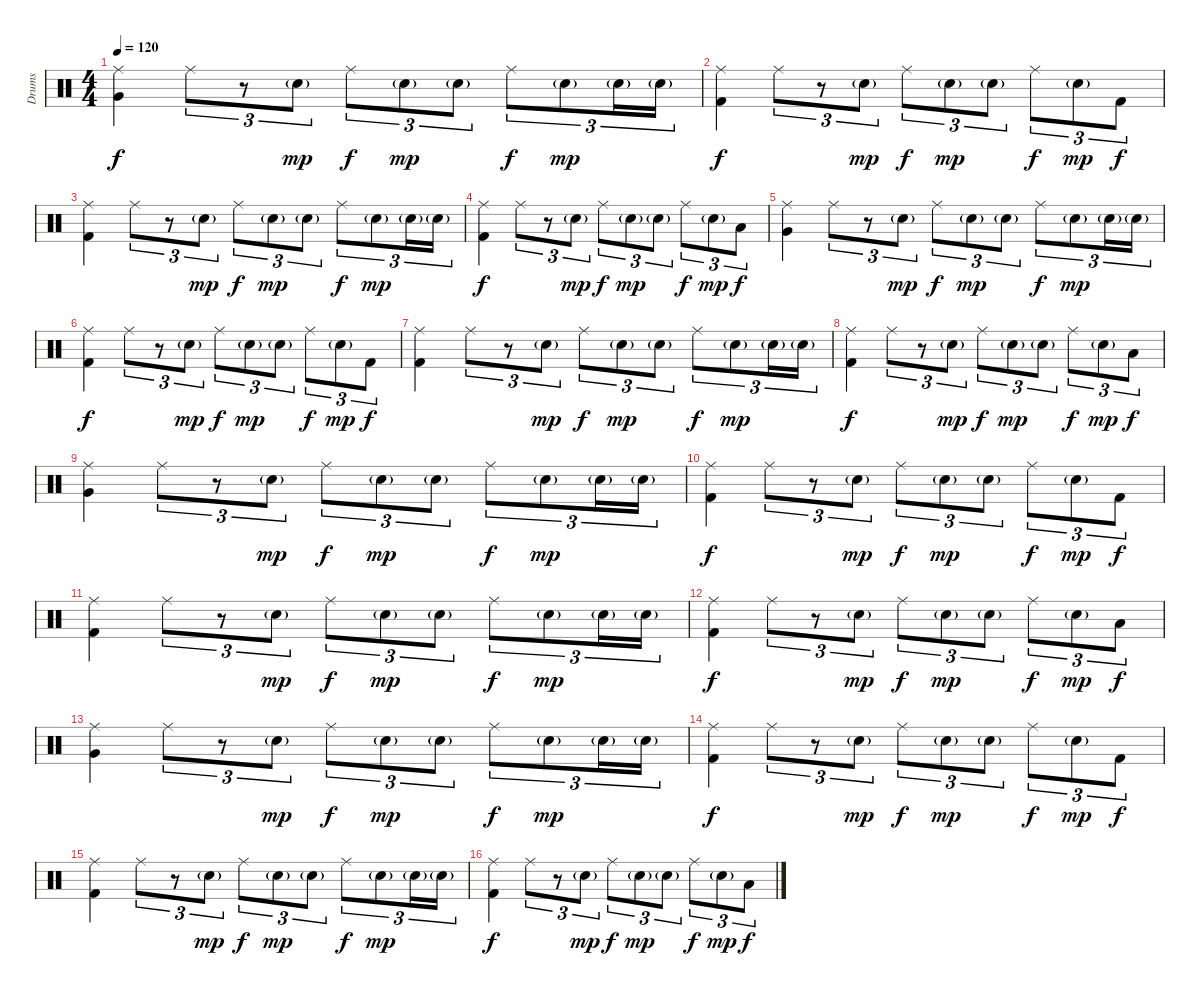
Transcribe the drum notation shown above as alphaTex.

\track ("Drums" "Drums") {instrument percussion}
\staff {score}
\articulation defaults
\ts (4 4)
\tempo 120
\clef neutral
\ks c
("Ride (middle)" "Very Low Tom (hit)").4{dy f} "Ride (middle)".8{tu (3 2)} r.8{tu (3 2)} "Snare (hit) 2"{g}.8{tu (3 2) dy mp} "Ride (middle)".8{tu (3 2) dy f} "Snare (hit) 2"{g}.8{tu (3 2) dy mp} "Snare (hit) 2"{g}.8{tu (3 2)} "Ride (middle)".8{tu (3 2) dy f} "Snare (hit) 2"{g}.8{tu (3 2) dy mp} "Snare (hit) 2"{g}.16{tu (3 2)} "Snare (hit) 2"{g}.16{tu (3 2)} |
("Ride (middle)" "Kick (hit) 2").4{dy f} "Ride (middle)".8{tu (3 2)} r.8{tu (3 2)} "Snare (hit) 2"{g}.8{tu (3 2) dy mp} "Ride (middle)".8{tu (3 2) dy f} "Snare (hit) 2"{g}.8{tu (3 2) dy mp} "Snare (hit) 2"{g}.8{tu (3 2)} "Ride (middle)".8{tu (3 2) dy f} "Snare (hit) 2"{g}.8{tu (3 2) dy mp} "Kick (hit) 2".8{tu (3 2) dy f} |
("Ride (middle)" "Kick (hit) 2").4 "Ride (middle)".8{tu (3 2)} r.8{tu (3 2)} "Snare (hit) 2"{g}.8{tu (3 2) dy mp} "Ride (middle)".8{tu (3 2) dy f} "Snare (hit) 2"{g}.8{tu (3 2) dy mp} "Snare (hit) 2"{g}.8{tu (3 2)} "Ride (middle)".8{tu (3 2) dy f} "Snare (hit) 2"{g}.8{tu (3 2) dy mp} "Snare (hit) 2"{g}.16{tu (3 2)} "Snare (hit) 2"{g}.16{tu (3 2)} |
("Ride (middle)" "Kick (hit) 2").4{dy f} "Ride (middle)".8{tu (3 2)} r.8{tu (3 2)} "Snare (hit) 2"{g}.8{tu (3 2) dy mp} "Ride (middle)".8{tu (3 2) dy f} "Snare (hit) 2"{g}.8{tu (3 2) dy mp} "Snare (hit) 2"{g}.8{tu (3 2)} "Ride (middle)".8{tu (3 2) dy f} "Snare (hit) 2"{g}.8{tu (3 2) dy mp} "Low Tom (hit)".8{tu (3 2) dy f} |
("Ride (middle)" "Very Low Tom (hit)").4 "Ride (middle)".8{tu (3 2)} r.8{tu (3 2)} "Snare (hit) 2"{g}.8{tu (3 2) dy mp} "Ride (middle)".8{tu (3 2) dy f} "Snare (hit) 2"{g}.8{tu (3 2) dy mp} "Snare (hit) 2"{g}.8{tu (3 2)} "Ride (middle)".8{tu (3 2) dy f} "Snare (hit) 2"{g}.8{tu (3 2) dy mp} "Snare (hit) 2"{g}.16{tu (3 2)} "Snare (hit) 2"{g}.16{tu (3 2)} |
("Ride (middle)" "Kick (hit) 2").4{dy f} "Ride (middle)".8{tu (3 2)} r.8{tu (3 2)} "Snare (hit) 2"{g}.8{tu (3 2) dy mp} "Ride (middle)".8{tu (3 2) dy f} "Snare (hit) 2"{g}.8{tu (3 2) dy mp} "Snare (hit) 2"{g}.8{tu (3 2)} "Ride (middle)".8{tu (3 2) dy f} "Snare (hit) 2"{g}.8{tu (3 2) dy mp} "Kick (hit) 2".8{tu (3 2) dy f} |
("Ride (middle)" "Kick (hit) 2").4 "Ride (middle)".8{tu (3 2)} r.8{tu (3 2)} "Snare (hit) 2"{g}.8{tu (3 2) dy mp} "Ride (middle)".8{tu (3 2) dy f} "Snare (hit) 2"{g}.8{tu (3 2) dy mp} "Snare (hit) 2"{g}.8{tu (3 2)} "Ride (middle)".8{tu (3 2) dy f} "Snare (hit) 2"{g}.8{tu (3 2) dy mp} "Snare (hit) 2"{g}.16{tu (3 2)} "Snare (hit) 2"{g}.16{tu (3 2)} |
("Ride (middle)" "Kick (hit) 2").4{dy f} "Ride (middle)".8{tu (3 2)} r.8{tu (3 2)} "Snare (hit) 2"{g}.8{tu (3 2) dy mp} "Ride (middle)".8{tu (3 2) dy f} "Snare (hit) 2"{g}.8{tu (3 2) dy mp} "Snare (hit) 2"{g}.8{tu (3 2)} "Ride (middle)".8{tu (3 2) dy f} "Snare (hit) 2"{g}.8{tu (3 2) dy mp} "Low Tom (hit)".8{tu (3 2) dy f} |
("Ride (middle)" "Very Low Tom (hit)").4 "Ride (middle)".8{tu (3 2)} r.8{tu (3 2)} "Snare (hit) 2"{g}.8{tu (3 2) dy mp} "Ride (middle)".8{tu (3 2) dy f} "Snare (hit) 2"{g}.8{tu (3 2) dy mp} "Snare (hit) 2"{g}.8{tu (3 2)} "Ride (middle)".8{tu (3 2) dy f} "Snare (hit) 2"{g}.8{tu (3 2) dy mp} "Snare (hit) 2"{g}.16{tu (3 2)} "Snare (hit) 2"{g}.16{tu (3 2)} |
("Ride (middle)" "Kick (hit) 2").4{dy f} "Ride (middle)".8{tu (3 2)} r.8{tu (3 2)} "Snare (hit) 2"{g}.8{tu (3 2) dy mp} "Ride (middle)".8{tu (3 2) dy f} "Snare (hit) 2"{g}.8{tu (3 2) dy mp} "Snare (hit) 2"{g}.8{tu (3 2)} "Ride (middle)".8{tu (3 2) dy f} "Snare (hit) 2"{g}.8{tu (3 2) dy mp} "Kick (hit) 2".8{tu (3 2) dy f} |
("Ride (middle)" "Kick (hit) 2").4 "Ride (middle)".8{tu (3 2)} r.8{tu (3 2)} "Snare (hit) 2"{g}.8{tu (3 2) dy mp} "Ride (middle)".8{tu (3 2) dy f} "Snare (hit) 2"{g}.8{tu (3 2) dy mp} "Snare (hit) 2"{g}.8{tu (3 2)} "Ride (middle)".8{tu (3 2) dy f} "Snare (hit) 2"{g}.8{tu (3 2) dy mp} "Snare (hit) 2"{g}.16{tu (3 2)} "Snare (hit) 2"{g}.16{tu (3 2)} |
("Ride (middle)" "Kick (hit) 2").4{dy f} "Ride (middle)".8{tu (3 2)} r.8{tu (3 2)} "Snare (hit) 2"{g}.8{tu (3 2) dy mp} "Ride (middle)".8{tu (3 2) dy f} "Snare (hit) 2"{g}.8{tu (3 2) dy mp} "Snare (hit) 2"{g}.8{tu (3 2)} "Ride (middle)".8{tu (3 2) dy f} "Snare (hit) 2"{g}.8{tu (3 2) dy mp} "Low Tom (hit)".8{tu (3 2) dy f} |
("Ride (middle)" "Very Low Tom (hit)").4 "Ride (middle)".8{tu (3 2)} r.8{tu (3 2)} "Snare (hit) 2"{g}.8{tu (3 2) dy mp} "Ride (middle)".8{tu (3 2) dy f} "Snare (hit) 2"{g}.8{tu (3 2) dy mp} "Snare (hit) 2"{g}.8{tu (3 2)} "Ride (middle)".8{tu (3 2) dy f} "Snare (hit) 2"{g}.8{tu (3 2) dy mp} "Snare (hit) 2"{g}.16{tu (3 2)} "Snare (hit) 2"{g}.16{tu (3 2)} |
("Ride (middle)" "Kick (hit) 2").4{dy f} "Ride (middle)".8{tu (3 2)} r.8{tu (3 2)} "Snare (hit) 2"{g}.8{tu (3 2) dy mp} "Ride (middle)".8{tu (3 2) dy f} "Snare (hit) 2"{g}.8{tu (3 2) dy mp} "Snare (hit) 2"{g}.8{tu (3 2)} "Ride (middle)".8{tu (3 2) dy f} "Snare (hit) 2"{g}.8{tu (3 2) dy mp} "Kick (hit) 2".8{tu (3 2) dy f} |
("Ride (middle)" "Kick (hit) 2").4 "Ride (middle)".8{tu (3 2)} r.8{tu (3 2)} "Snare (hit) 2"{g}.8{tu (3 2) dy mp} "Ride (middle)".8{tu (3 2) dy f} "Snare (hit) 2"{g}.8{tu (3 2) dy mp} "Snare (hit) 2"{g}.8{tu (3 2)} "Ride (middle)".8{tu (3 2) dy f} "Snare (hit) 2"{g}.8{tu (3 2) dy mp} "Snare (hit) 2"{g}.16{tu (3 2)} "Snare (hit) 2"{g}.16{tu (3 2)} |
("Ride (middle)" "Kick (hit) 2").4{dy f} "Ride (middle)".8{tu (3 2)} r.8{tu (3 2)} "Snare (hit) 2"{g}.8{tu (3 2) dy mp} "Ride (middle)".8{tu (3 2) dy f} "Snare (hit) 2"{g}.8{tu (3 2) dy mp} "Snare (hit) 2"{g}.8{tu (3 2)} "Ride (middle)".8{tu (3 2) dy f} "Snare (hit) 2"{g}.8{tu (3 2) dy mp} "Low Tom (hit)".8{tu (3 2) dy f}
